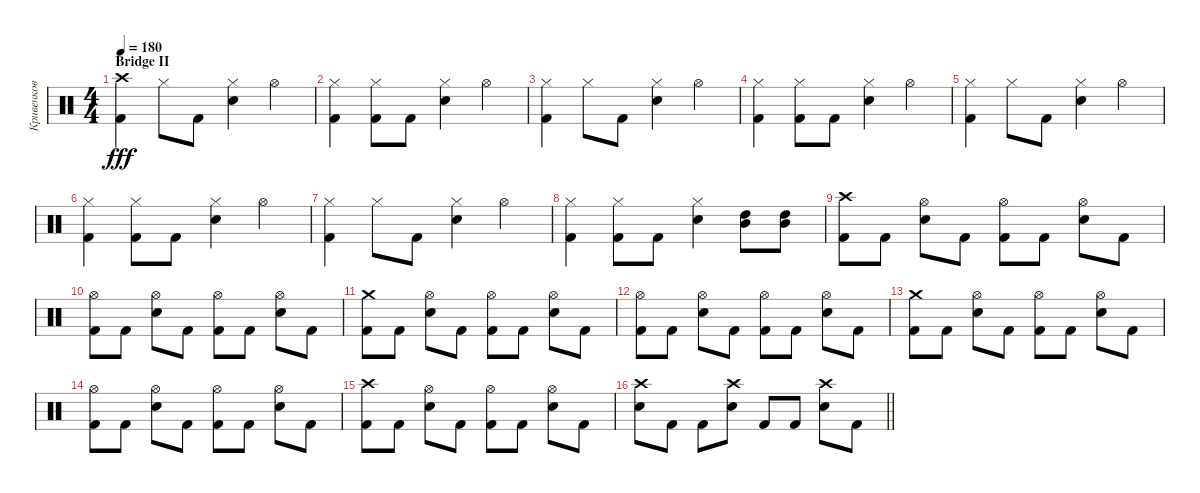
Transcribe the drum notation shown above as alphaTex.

\track ("Кривенков" "Кривенков") {instrument percussion}
\staff {score}
\articulation defaults
\ts (4 4)
\section ("" "Bridge II")
\tempo 180
\clef neutral
\ks c
("Crash high (hit)" "Kick (hit) 2").4{dy fff} "Hi-Hat (closed)".8 "Kick (hit) 2".8 ("Snare (hit) 2" "Hi-Hat (closed)").4 "Hi-Hat (open)".4 |
("Kick (hit) 2" "Hi-Hat (closed)").4 ("Hi-Hat (closed)" "Kick (hit) 2").8 "Kick (hit) 2".8 ("Snare (hit) 2" "Hi-Hat (closed)").4 "Hi-Hat (open)".4 |
("Hi-Hat (closed)" "Kick (hit) 2").4 "Hi-Hat (closed)".8 "Kick (hit) 2".8 ("Snare (hit) 2" "Hi-Hat (closed)").4 "Hi-Hat (open)".4 |
("Hi-Hat (closed)" "Kick (hit) 2").4 ("Hi-Hat (closed)" "Kick (hit) 2").8 "Kick (hit) 2".8 ("Hi-Hat (closed)" "Snare (hit) 2").4 "Hi-Hat (open)".4 |
("Kick (hit) 2" "Hi-Hat (closed)").4 "Hi-Hat (closed)".8 "Kick (hit) 2".8 ("Snare (hit) 2" "Hi-Hat (closed)").4 "Hi-Hat (open)".4 |
("Kick (hit) 2" "Hi-Hat (closed)").4 ("Hi-Hat (closed)" "Kick (hit) 2").8 "Kick (hit) 2".8 ("Hi-Hat (closed)" "Snare (hit) 2").4 "Hi-Hat (open)".4 |
("Kick (hit) 2" "Hi-Hat (closed)").4 "Hi-Hat (closed)".8 "Kick (hit) 2".8 ("Snare (hit) 2" "Hi-Hat (closed)").4 "Hi-Hat (open)".4 |
("Hi-Hat (closed)" "Kick (hit) 2").4 ("Kick (hit) 2" "Hi-Hat (closed)").8 "Kick (hit) 2".8 ("Hi-Hat (closed)" "Snare (hit) 2").4 ("High Tom (hit)" "Mid Tom (hit)").8 ("Mid Tom (hit)" "High Tom (hit)").8 |
("Kick (hit) 2" "Crash high (hit)").8 "Kick (hit) 2".8 ("Snare (hit) 2" "Hi-Hat (open)").8 "Kick (hit) 2".8 ("Hi-Hat (open)" "Kick (hit) 2").8 "Kick (hit) 2".8 ("Hi-Hat (open)" "Snare (hit) 2").8 "Kick (hit) 2".8 |
("Kick (hit) 2" "Hi-Hat (open)").8 "Kick (hit) 2".8 ("Hi-Hat (open)" "Snare (hit) 2").8 "Kick (hit) 2".8 ("Kick (hit) 2" "Hi-Hat (open)").8 "Kick (hit) 2".8 ("Hi-Hat (open)" "Snare (hit) 2").8 "Kick (hit) 2".8 |
("Crash medium (hit)" "Kick (hit) 2").8 "Kick (hit) 2".8 ("Snare (hit) 2" "Hi-Hat (open)").8 "Kick (hit) 2".8 ("Kick (hit) 2" "Hi-Hat (open)").8 "Kick (hit) 2".8 ("Snare (hit) 2" "Hi-Hat (open)").8 "Kick (hit) 2".8 |
("Kick (hit) 2" "Hi-Hat (open)").8 "Kick (hit) 2".8 ("Snare (hit) 2" "Hi-Hat (open)").8 "Kick (hit) 2".8 ("Kick (hit) 2" "Hi-Hat (open)").8 "Kick (hit) 2".8 ("Snare (hit) 2" "Hi-Hat (open)").8 "Kick (hit) 2".8 |
("Kick (hit) 2" "Crash medium (hit)").8 "Kick (hit) 2".8 ("Hi-Hat (open)" "Snare (hit) 2").8 "Kick (hit) 2".8 ("Hi-Hat (open)" "Kick (hit) 2").8 "Kick (hit) 2".8 ("Snare (hit) 2" "Hi-Hat (open)").8 "Kick (hit) 2".8 |
("Kick (hit) 2" "Hi-Hat (open)").8 "Kick (hit) 2".8 ("Hi-Hat (open)" "Snare (hit) 2").8 "Kick (hit) 2".8 ("Kick (hit) 2" "Hi-Hat (open)").8 "Kick (hit) 2".8 ("Hi-Hat (open)" "Snare (hit) 2").8 "Kick (hit) 2".8 |
("Kick (hit) 2" "Crash high (hit)").8 "Kick (hit) 2".8 ("Hi-Hat (open)" "Snare (hit) 2").8 "Kick (hit) 2".8 ("Kick (hit) 2" "Hi-Hat (open)").8 "Kick (hit) 2".8 ("Snare (hit) 2" "Hi-Hat (open)").8 "Kick (hit) 2".8 |
\barLineRight lightlight
("Crash high (hit)" "Snare (hit) 2").8 "Kick (hit) 2".8 "Kick (hit) 2".8 ("Crash high (hit)" "Snare (hit) 2").8 "Kick (hit) 2".8 "Kick (hit) 2".8 ("Snare (hit) 2" "Crash high (hit)").8 "Kick (hit) 2".8
